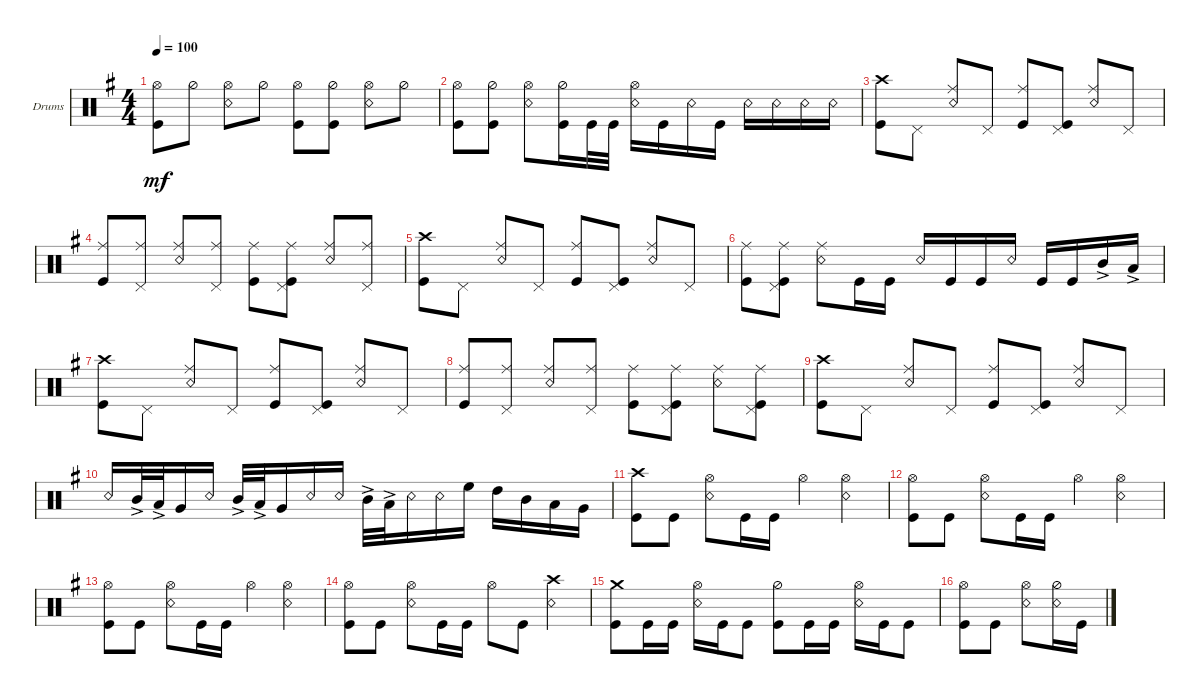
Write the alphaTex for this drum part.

\defaultSystemsLayout 4
\bracketExtendMode groupsimilarinstruments
\firstSystemTrackNameOrientation horizontal
\otherSystemsTrackNameOrientation horizontal
\track ("Drumkit" "Drums") {instrument percussion}
\staff {score}
\articulation defaults
\ts (4 4)
\tempo 100
\clef neutral
\ks eminor
("Kick (hit)" "Hi-Hat (open)").8{dy mf} "Hi-Hat (half)".8 ("Hi-Hat (open)" "Snare (rim shot)").8 "Hi-Hat (half)".8 ("Kick (hit)" "Hi-Hat (open)").8 ("Hi-Hat (half)" "Kick (hit)").8 ("Hi-Hat (open)" "Snare (rim shot)").8 "Hi-Hat (half)".8 |
("Kick (hit)" "Hi-Hat (open)").8 ("Hi-Hat (half)" "Kick (hit)").8 ("Hi-Hat (open)" "Snare (rim shot)").8 ("Kick (hit)" "Hi-Hat (half)").16 "Kick (hit)".32 "Kick (hit)".32 ("Snare (rim shot)" "Hi-Hat (open)").16 "Kick (hit)".16 "Snare (rim shot)".16 "Kick (hit)".16 "Snare (rim shot)".16 "Snare (rim shot)".16 "Snare (rim shot)".16 "Snare (rim shot)".16 |
("Kick (hit)" "Crash high (hit)").8 "Pedal Hi-Hat (hit)".8 ("Ride (middle)" "Snare (rim shot)").8 "Pedal Hi-Hat (hit)".8 ("Kick (hit)" "Ride (middle)").8 ("Kick (hit)" "Pedal Hi-Hat (hit)").8 ("Snare (rim shot)" "Ride (middle)").8 "Pedal Hi-Hat (hit)".8 |
("Kick (hit)" "Ride (middle)").8 ("Pedal Hi-Hat (hit)" "Ride (middle)").8 ("Ride (middle)" "Snare (rim shot)").8 ("Pedal Hi-Hat (hit)" "Ride (middle)").8 ("Kick (hit)" "Ride (middle)").8 ("Kick (hit)" "Pedal Hi-Hat (hit)" "Ride (middle)").8 ("Snare (rim shot)" "Ride (middle)").8 ("Pedal Hi-Hat (hit)" "Ride (middle)").8 |
("Kick (hit)" "Crash high (hit)").8 "Pedal Hi-Hat (hit)".8 ("Ride (middle)" "Snare (rim shot)").8 "Pedal Hi-Hat (hit)".8 ("Kick (hit)" "Ride (middle)").8 ("Kick (hit)" "Pedal Hi-Hat (hit)").8 ("Snare (rim shot)" "Ride (middle)").8 "Pedal Hi-Hat (hit)".8 |
("Kick (hit)" "Ride (middle)").8 ("Pedal Hi-Hat (hit)" "Ride (middle)" "Kick (hit)").8 ("Ride (middle)" "Snare (rim shot)").8 "Kick (hit)".16 "Kick (hit)".16 "Snare (rim shot)".16 "Kick (hit)".16 "Kick (hit)".16 "Snare (rim shot)".16 "Kick (hit)".16 "Kick (hit)".16 "Mid Tom (hit)"{ac}.16 "Low Tom (hit)"{ac}.16 |
("Kick (hit)" "Crash high (hit)").8 "Pedal Hi-Hat (hit)".8 ("Ride (middle)" "Snare (rim shot)").8 "Pedal Hi-Hat (hit)".8 ("Kick (hit)" "Ride (middle)").8 ("Kick (hit)" "Pedal Hi-Hat (hit)").8 ("Snare (rim shot)" "Ride (middle)").8 "Pedal Hi-Hat (hit)".8 |
("Kick (hit)" "Ride (middle)").8 ("Pedal Hi-Hat (hit)" "Ride (middle)").8 ("Ride (middle)" "Snare (rim shot)").8 ("Pedal Hi-Hat (hit)" "Ride (middle)").8 ("Kick (hit)" "Ride (middle)").8 ("Kick (hit)" "Pedal Hi-Hat (hit)" "Ride (middle)").8 ("Snare (rim shot)" "Ride (middle)").8 ("Pedal Hi-Hat (hit)" "Ride (middle)" "Kick (hit)").8 |
("Kick (hit)" "Crash high (hit)").8 "Pedal Hi-Hat (hit)".8 ("Ride (middle)" "Snare (rim shot)").8 "Pedal Hi-Hat (hit)".8 ("Kick (hit)" "Ride (middle)").8 ("Kick (hit)" "Pedal Hi-Hat (hit)").8 ("Snare (rim shot)" "Ride (middle)").8 "Pedal Hi-Hat (hit)".8 |
"Snare (rim shot)".16 "Mid Tom (hit)"{ac}.32 "Low Tom (hit)"{ac}.32 "Very Low Tom (hit)".16 "Snare (rim shot)".16 "Mid Tom (hit)"{ac}.32 "Low Tom (hit)"{ac}.32 "Very Low Tom (hit)".16 "Snare (rim shot)".16 "Snare (rim shot)".16 "Mid Tom (hit)"{ac}.32 "Low Tom (hit)"{ac}.32 "Snare (rim shot)".16 "Snare (rim shot)".16 "High Floor Tom (hit)".16 "High Tom (hit)".16 "Mid Tom (hit)".16 "Low Tom (hit)".16 "Very Low Tom (hit)".16 |
("Kick (hit)" "Crash high (hit)").8 "Kick (hit)".8 ("Hi-Hat (open)" "Snare (rim shot)").8 "Kick (hit)".16 "Kick (hit)".16 "Hi-Hat (open)".4 ("Hi-Hat (open)" "Snare (rim shot)").4 |
("Kick (hit)" "Hi-Hat (open)").8 "Kick (hit)".8 ("Hi-Hat (open)" "Snare (rim shot)").8 "Kick (hit)".16 "Kick (hit)".16 "Hi-Hat (open)".4 ("Hi-Hat (open)" "Snare (rim shot)").4 |
("Kick (hit)" "Hi-Hat (open)").8 "Kick (hit)".8 ("Hi-Hat (open)" "Snare (rim shot)").8 "Kick (hit)".16 "Kick (hit)".16 "Hi-Hat (open)".4 ("Hi-Hat (open)" "Snare (rim shot)").4 |
("Kick (hit)" "Hi-Hat (open)").8 "Kick (hit)".8 ("Hi-Hat (open)" "Snare (rim shot)").8 "Kick (hit)".16 "Kick (hit)".16 "Hi-Hat (open)".8 "Kick (hit)".8 ("Snare (rim shot)" "Crash high (hit)").4 |
("Crash medium (hit)" "Kick (hit)").8 "Kick (hit)".16 "Kick (hit)".16 ("Snare (rim shot)" "Hi-Hat (open)").16 "Kick (hit)".16 "Kick (hit)".8 ("Kick (hit)" "Hi-Hat (half)").8 "Kick (hit)".16 "Kick (hit)".16 ("Snare (rim shot)" "Hi-Hat (open)").16 "Kick (hit)".16 "Kick (hit)".8 |
("Kick (hit)" "Hi-Hat (open)").8 "Kick (hit)".8 ("Hi-Hat (open)" "Snare (rim shot)").8 ("Snare (rim shot)" "Hi-Hat (half)").16 "Kick (hit)".16
